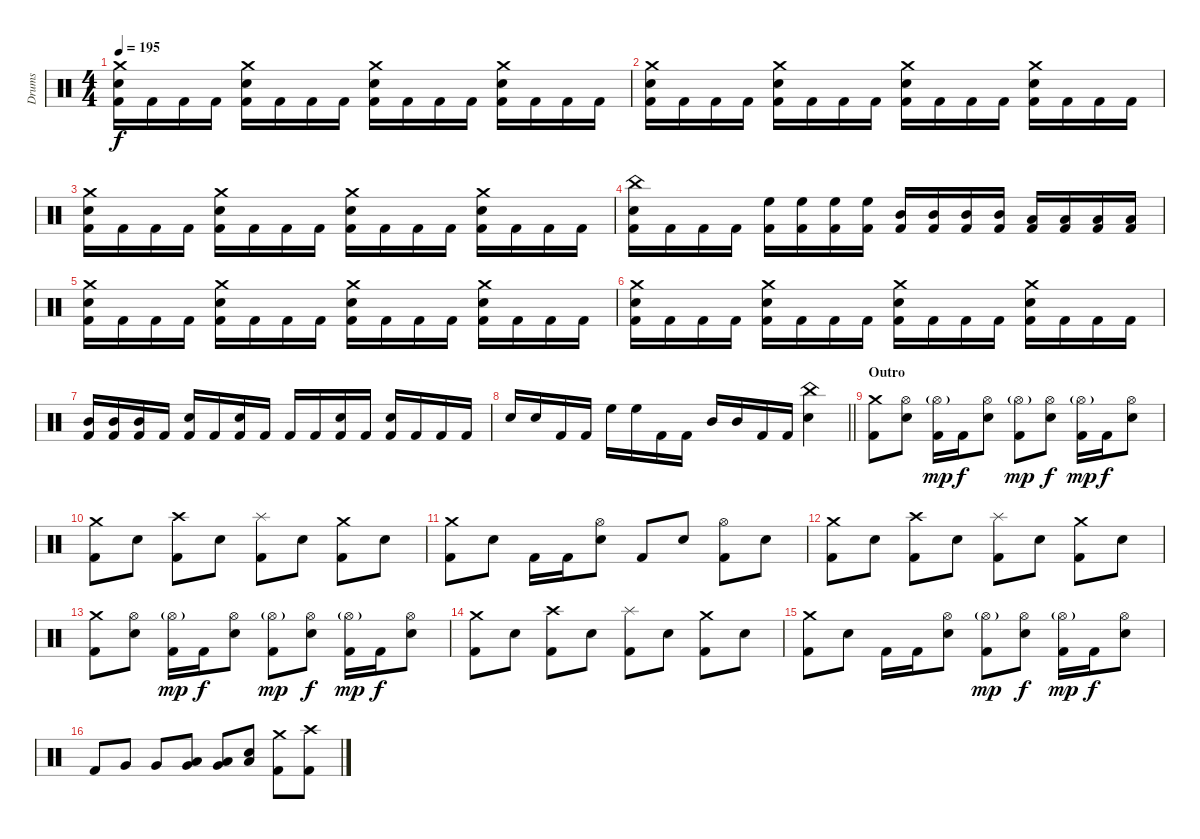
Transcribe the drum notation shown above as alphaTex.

\track ("Drums" "Drums") {instrument percussion}
\staff {score}
\articulation defaults
\ts (4 4)
\tempo 195
\clef neutral
\ks c
("Crash medium (hit)" "Snare (hit) 2" "Kick (hit) 2").16{dy f} "Kick (hit) 2".16 "Kick (hit) 2".16 "Kick (hit) 2".16 ("Crash medium (hit)" "Snare (hit) 2" "Kick (hit) 2").16 "Kick (hit) 2".16 "Kick (hit) 2".16 "Kick (hit) 2".16 ("Crash medium (hit)" "Snare (hit) 2" "Kick (hit) 2").16 "Kick (hit) 2".16 "Kick (hit) 2".16 "Kick (hit) 2".16 ("Crash medium (hit)" "Snare (hit) 2" "Kick (hit) 2").16 "Kick (hit) 2".16 "Kick (hit) 2".16 "Kick (hit) 2".16 |
("Crash medium (hit)" "Snare (hit) 2" "Kick (hit) 2").16 "Kick (hit) 2".16 "Kick (hit) 2".16 "Kick (hit) 2".16 ("Crash medium (hit)" "Snare (hit) 2" "Kick (hit) 2").16 "Kick (hit) 2".16 "Kick (hit) 2".16 "Kick (hit) 2".16 ("Crash medium (hit)" "Snare (hit) 2" "Kick (hit) 2").16 "Kick (hit) 2".16 "Kick (hit) 2".16 "Kick (hit) 2".16 ("Crash medium (hit)" "Snare (hit) 2" "Kick (hit) 2").16 "Kick (hit) 2".16 "Kick (hit) 2".16 "Kick (hit) 2".16 |
("Crash medium (hit)" "Snare (hit) 2" "Kick (hit) 2").16 "Kick (hit) 2".16 "Kick (hit) 2".16 "Kick (hit) 2".16 ("Crash medium (hit)" "Snare (hit) 2" "Kick (hit) 2").16 "Kick (hit) 2".16 "Kick (hit) 2".16 "Kick (hit) 2".16 ("Crash medium (hit)" "Snare (hit) 2" "Kick (hit) 2").16 "Kick (hit) 2".16 "Kick (hit) 2".16 "Kick (hit) 2".16 ("Crash medium (hit)" "Snare (hit) 2" "Kick (hit) 2").16 "Kick (hit) 2".16 "Kick (hit) 2".16 "Kick (hit) 2".16 |
("China (hit)" "Snare (hit) 2" "Kick (hit) 2").16 "Kick (hit) 2".16 "Kick (hit) 2".16 "Kick (hit) 2".16 ("High Floor Tom (hit)" "Kick (hit) 2").16 ("High Floor Tom (hit)" "Kick (hit) 2").16 ("High Floor Tom (hit)" "Kick (hit) 2").16 ("High Floor Tom (hit)" "Kick (hit) 2").16 ("Mid Tom (hit)" "Kick (hit) 2").16 ("Mid Tom (hit)" "Kick (hit) 2").16 ("Mid Tom (hit)" "Kick (hit) 2").16 ("Mid Tom (hit)" "Kick (hit) 2").16 ("Low Tom (hit)" "Kick (hit) 2").16 ("Low Tom (hit)" "Kick (hit) 2").16 ("Low Tom (hit)" "Kick (hit) 2").16 ("Low Tom (hit)" "Kick (hit) 2").16 |
("Crash medium (hit)" "Snare (hit) 2" "Kick (hit) 2").16 "Kick (hit) 2".16 "Kick (hit) 2".16 "Kick (hit) 2".16 ("Crash medium (hit)" "Snare (hit) 2" "Kick (hit) 2").16 "Kick (hit) 2".16 "Kick (hit) 2".16 "Kick (hit) 2".16 ("Crash medium (hit)" "Snare (hit) 2" "Kick (hit) 2").16 "Kick (hit) 2".16 "Kick (hit) 2".16 "Kick (hit) 2".16 ("Crash medium (hit)" "Snare (hit) 2" "Kick (hit) 2").16 "Kick (hit) 2".16 "Kick (hit) 2".16 "Kick (hit) 2".16 |
("Crash medium (hit)" "Snare (hit) 2" "Kick (hit) 2").16 "Kick (hit) 2".16 "Kick (hit) 2".16 "Kick (hit) 2".16 ("Crash medium (hit)" "Snare (hit) 2" "Kick (hit) 2").16 "Kick (hit) 2".16 "Kick (hit) 2".16 "Kick (hit) 2".16 ("Crash medium (hit)" "Snare (hit) 2" "Kick (hit) 2").16 "Kick (hit) 2".16 "Kick (hit) 2".16 "Kick (hit) 2".16 ("Crash medium (hit)" "Snare (hit) 2" "Kick (hit) 2").16 "Kick (hit) 2".16 "Kick (hit) 2".16 "Kick (hit) 2".16 |
("Mid Tom (hit)" "Kick (hit) 2").16 ("Mid Tom (hit)" "Kick (hit) 2").16 ("Mid Tom (hit)" "Kick (hit) 2").16 "Kick (hit) 2".16 ("Snare (hit) 2" "Kick (hit) 2").16 "Kick (hit) 2".16 ("Snare (hit) 2" "Kick (hit) 2").16 "Kick (hit) 2".16 "Kick (hit) 2".16 "Kick (hit) 2".16 ("Snare (hit) 2" "Kick (hit) 2").16 "Kick (hit) 2".16 ("Snare (hit) 2" "Kick (hit) 2").16 "Kick (hit) 2".16 "Kick (hit) 2".16 "Kick (hit) 2".16 |
\barLineRight lightlight "Snare (hit) 2".16 "Snare (hit) 2".16 "Kick (hit) 2".16 "Kick (hit) 2".16 "High Floor Tom (hit)".16 "High Floor Tom (hit)".16 "Kick (hit) 2".16 "Kick (hit) 2".16 "Mid Tom (hit)".16 "Mid Tom (hit)".16 "Kick (hit) 2".16 "Kick (hit) 2".16
("China (hit)" "Snare (hit) 2").4 |
\section ("" "Outro")
("Crash medium (hit)" "Kick (hit) 2").8 ("Hi-Hat (open)" "Snare (hit) 2").8 ("Hi-Hat (open)"{g} "Kick (hit) 2").16{dy mp} "Kick (hit) 2".16{dy f} ("Hi-Hat (open)" "Snare (hit) 2").8 ("Hi-Hat (open)"{g} "Kick (hit) 2").8{dy mp} ("Hi-Hat (open)" "Snare (hit) 2").8{dy f} ("Hi-Hat (open)"{g} "Kick (hit) 2").16{dy mp} "Kick (hit) 2".16{dy f} ("Hi-Hat (open)" "Snare (hit) 2").8 |
("Crash medium (hit)" "Kick (hit) 2").8 "Snare (hit) 2".8 ("Crash high (hit)" "Kick (hit) 2").8 "Snare (hit) 2".8 ("Splash (hit)" "Kick (hit) 2").8 "Snare (hit) 2".8 ("Crash medium (hit)" "Kick (hit) 2").8 "Snare (hit) 2".8 |
("Crash medium (hit)" "Kick (hit) 2").8 "Snare (hit) 2".8 "Kick (hit) 2".16 "Kick (hit) 2".16 ("Hi-Hat (open)" "Snare (hit) 2").8 "Kick (hit) 2".8 "Snare (hit) 2".8 ("Hi-Hat (open)" "Kick (hit) 2").8 "Snare (hit) 2".8 |
("Crash medium (hit)" "Kick (hit) 2").8 "Snare (hit) 2".8 ("Crash high (hit)" "Kick (hit) 2").8 "Snare (hit) 2".8 ("Splash (hit)" "Kick (hit) 2").8 "Snare (hit) 2".8 ("Crash medium (hit)" "Kick (hit) 2").8 "Snare (hit) 2".8 |
("Crash medium (hit)" "Kick (hit) 2").8 ("Hi-Hat (open)" "Snare (hit) 2").8 ("Hi-Hat (open)"{g} "Kick (hit) 2").16{dy mp} "Kick (hit) 2".16{dy f} ("Hi-Hat (open)" "Snare (hit) 2").8 ("Hi-Hat (open)"{g} "Kick (hit) 2").8{dy mp} ("Hi-Hat (open)" "Snare (hit) 2").8{dy f} ("Hi-Hat (open)"{g} "Kick (hit) 2").16{dy mp} "Kick (hit) 2".16{dy f} ("Hi-Hat (open)" "Snare (hit) 2").8 |
("Crash medium (hit)" "Kick (hit) 2").8 "Snare (hit) 2".8 ("Crash high (hit)" "Kick (hit) 2").8 "Snare (hit) 2".8 ("Splash (hit)" "Kick (hit) 2").8 "Snare (hit) 2".8 ("Crash medium (hit)" "Kick (hit) 2").8 "Snare (hit) 2".8 |
("Crash medium (hit)" "Kick (hit) 2").8 "Snare (hit) 2".8 "Kick (hit) 2".16 "Kick (hit) 2".16 ("Hi-Hat (open)" "Snare (hit) 2").8 ("Hi-Hat (open)"{g} "Kick (hit) 2").8{dy mp} ("Hi-Hat (open)" "Snare (hit) 2").8{dy f} ("Hi-Hat (open)"{g} "Kick (hit) 2").16{dy mp} "Kick (hit) 2".16{dy f} ("Hi-Hat (open)" "Snare (hit) 2").8 |
"Kick (hit) 2".8 "Very Low Tom (hit)".8 "Very Low Tom (hit)".8 ("Low Floor Tom (hit)" "Very Low Tom (hit)").8 ("Low Floor Tom (hit)" "Very Low Tom (hit)").8 ("Low Floor Tom (hit)" "Snare (hit) 2").8 ("Crash medium (hit)" "Kick (hit) 2").8 ("Crash high (hit)" "Kick (hit) 2").8
